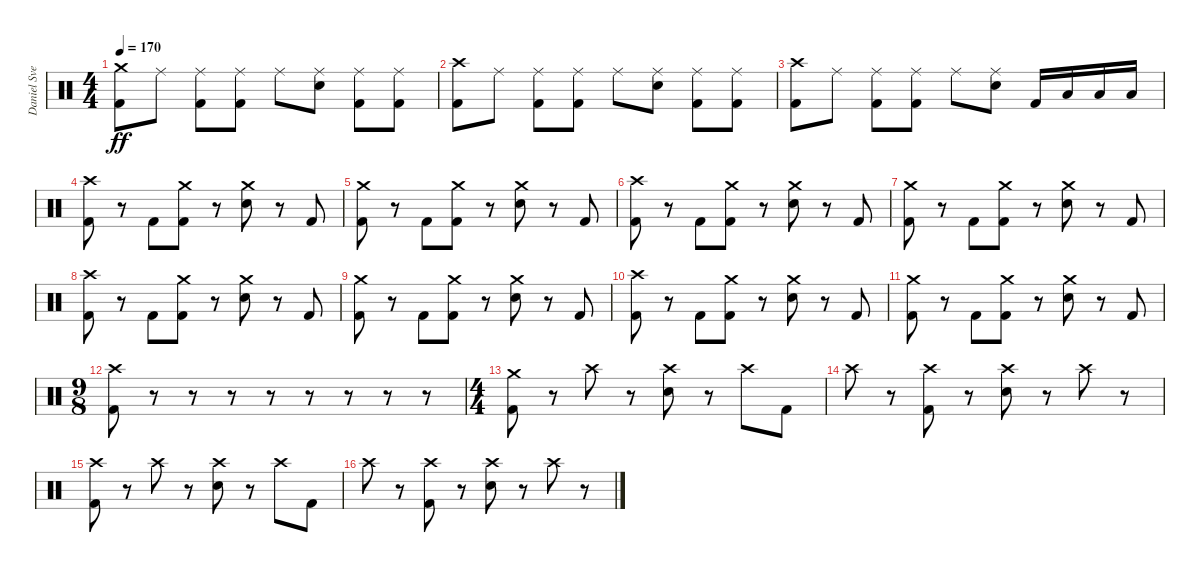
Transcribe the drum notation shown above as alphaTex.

\track ("Daniel Svensson" "Daniel Sve") {instrument percussion}
\staff {score}
\articulation defaults
\ts (4 4)
\tempo 170
\clef neutral
\ks c
("Crash medium (hit)" "Kick (hit) 2").8{dy ff} "Ride (middle)".8 ("Ride (middle)" "Kick (hit) 2").8 ("Ride (middle)" "Kick (hit) 2").8 "Ride (middle)".8 ("Ride (middle)" "Electric Snare (hit)").8 ("Ride (middle)" "Kick (hit) 2").8 ("Ride (middle)" "Kick (hit) 2").8 |
("Crash high (hit)" "Kick (hit) 2").8 "Ride (middle)".8 ("Ride (middle)" "Kick (hit) 2").8 ("Ride (middle)" "Kick (hit) 2").8 "Ride (middle)".8 ("Ride (middle)" "Electric Snare (hit)").8 ("Ride (middle)" "Kick (hit) 2").8 ("Ride (middle)" "Kick (hit) 2").8 |
("Crash high (hit)" "Kick (hit) 2").8 "Ride (middle)".8 ("Ride (middle)" "Kick (hit) 2").8 ("Ride (middle)" "Kick (hit) 2").8 "Ride (middle)".8 ("Ride (middle)" "Electric Snare (hit)").8 "Kick (hit) 2".16 "Low Floor Tom (hit)".16 "Low Floor Tom (hit)".16 "Low Floor Tom (hit)".16 |
("Crash high (hit)" "Kick (hit) 2").8 r.8 "Kick (hit) 2".8 ("Crash medium (hit)" "Kick (hit) 2").8 r.8 ("Crash medium (hit)" "Electric Snare (hit)").8 r.8 "Kick (hit) 2".8 |
("Crash medium (hit)" "Kick (hit) 2").8 r.8 "Kick (hit) 2".8 ("Crash medium (hit)" "Kick (hit) 2").8 r.8 ("Crash medium (hit)" "Electric Snare (hit)").8 r.8 "Kick (hit) 2".8 |
("Crash high (hit)" "Kick (hit) 2").8 r.8 "Kick (hit) 2".8 ("Crash medium (hit)" "Kick (hit) 2").8 r.8 ("Crash medium (hit)" "Electric Snare (hit)").8 r.8 "Kick (hit) 2".8 |
("Crash medium (hit)" "Kick (hit) 2").8 r.8 "Kick (hit) 2".8 ("Crash medium (hit)" "Kick (hit) 2").8 r.8 ("Crash medium (hit)" "Electric Snare (hit)").8 r.8 "Kick (hit) 2".8 |
("Crash high (hit)" "Kick (hit) 2").8 r.8 "Kick (hit) 2".8 ("Crash medium (hit)" "Kick (hit) 2").8 r.8 ("Crash medium (hit)" "Electric Snare (hit)").8 r.8 "Kick (hit) 2".8 |
("Crash medium (hit)" "Kick (hit) 2").8 r.8 "Kick (hit) 2".8 ("Crash medium (hit)" "Kick (hit) 2").8 r.8 ("Crash medium (hit)" "Electric Snare (hit)").8 r.8 "Kick (hit) 2".8 |
("Crash high (hit)" "Kick (hit) 2").8 r.8 "Kick (hit) 2".8 ("Crash medium (hit)" "Kick (hit) 2").8 r.8 ("Crash medium (hit)" "Electric Snare (hit)").8 r.8 "Kick (hit) 2".8 |
("Crash medium (hit)" "Kick (hit) 2").8 r.8 "Kick (hit) 2".8 ("Crash medium (hit)" "Kick (hit) 2").8 r.8 ("Crash medium (hit)" "Electric Snare (hit)").8 r.8 "Kick (hit) 2".8 |
\ts (9 8)
("Crash high (hit)" "Kick (hit) 2").8 r.8 r.8 r.8 r.8 r.8 r.8 r.8 r.8 |
\ts (4 4)
("Crash medium (hit)" "Kick (hit) 2").8 r.8 "Crash high (hit)".8 r.8 ("Crash high (hit)" "Electric Snare (hit)").8 r.8 "Crash high (hit)".8 "Kick (hit) 2".8 |
"Crash high (hit)".8 r.8 ("Crash high (hit)" "Kick (hit) 2").8 r.8 ("Crash high (hit)" "Electric Snare (hit)").8 r.8 "Crash high (hit)".8 r.8 |
("Crash high (hit)" "Kick (hit) 2").8 r.8 "Crash high (hit)".8 r.8 ("Crash high (hit)" "Electric Snare (hit)").8 r.8 "Crash high (hit)".8 "Kick (hit) 2".8 |
"Crash high (hit)".8 r.8 ("Crash high (hit)" "Kick (hit) 2").8 r.8 ("Crash high (hit)" "Electric Snare (hit)").8 r.8 "Crash high (hit)".8 r.8
